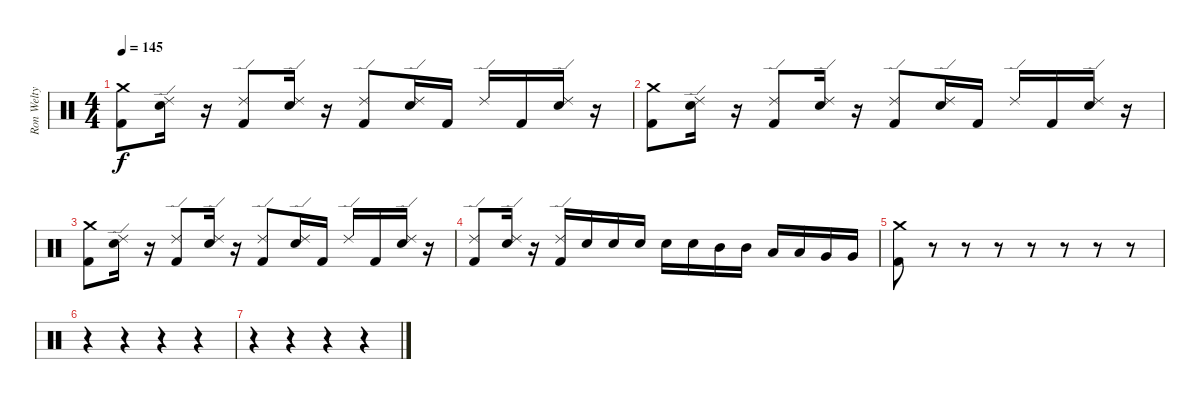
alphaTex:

\track ("Ron Welty" "Ron Welty") {instrument percussion}
\staff {score}
\articulation defaults
\ts (4 4)
\tempo 145
\clef neutral
\ks c
("Kick (hit) 2" "Crash medium (hit)").8{dy f} ("Snare (hit) 2" "Ride (edge) 2").16 r.16 ("Kick (hit) 2" "Ride (edge) 2").8 ("Snare (hit) 2" "Ride (edge) 2").16 r.16 ("Kick (hit) 2" "Ride (edge) 2").8 ("Snare (hit) 2" "Ride (edge) 2").16 "Kick (hit) 2".16 "Ride (edge) 2".16 "Kick (hit) 2".16 ("Snare (hit) 2" "Ride (edge) 2").16 r.16 |
("Kick (hit) 2" "Crash medium (hit)").8 ("Snare (hit) 2" "Ride (edge) 2").16 r.16 ("Kick (hit) 2" "Ride (edge) 2").8 ("Snare (hit) 2" "Ride (edge) 2").16 r.16 ("Kick (hit) 2" "Ride (edge) 2").8 ("Snare (hit) 2" "Ride (edge) 2").16 "Kick (hit) 2".16 "Ride (edge) 2".16 "Kick (hit) 2".16 ("Snare (hit) 2" "Ride (edge) 2").16 r.16 |
("Kick (hit) 2" "Crash medium (hit)").8 ("Snare (hit) 2" "Ride (edge) 2").16 r.16 ("Kick (hit) 2" "Ride (edge) 2").8 ("Snare (hit) 2" "Ride (edge) 2").16 r.16 ("Kick (hit) 2" "Ride (edge) 2").8 ("Snare (hit) 2" "Ride (edge) 2").16 "Kick (hit) 2".16 "Ride (edge) 2".16 "Kick (hit) 2".16 ("Snare (hit) 2" "Ride (edge) 2").16 r.16 |
("Kick (hit) 2" "Ride (edge) 2").8 ("Snare (hit) 2" "Ride (edge) 2").16 r.16 ("Kick (hit) 2" "Ride (edge) 2").16 "Snare (hit) 2".16 "Snare (hit) 2".16 "Snare (hit) 2".16 "Snare (hit) 2".16 "Snare (hit) 2".16 "Mid Tom (hit)".16 "Mid Tom (hit)".16 "Low Tom (hit)".16 "Low Tom (hit)".16 "Very Low Tom (hit)".16 "Very Low Tom (hit)".16 |
("Kick (hit) 2" "Crash medium (hit)").8 r.8 r.8 r.8 r.8 r.8 r.8 r.8 |
r.4 r.4 r.4 r.4 |
r.4 r.4 r.4 r.4
